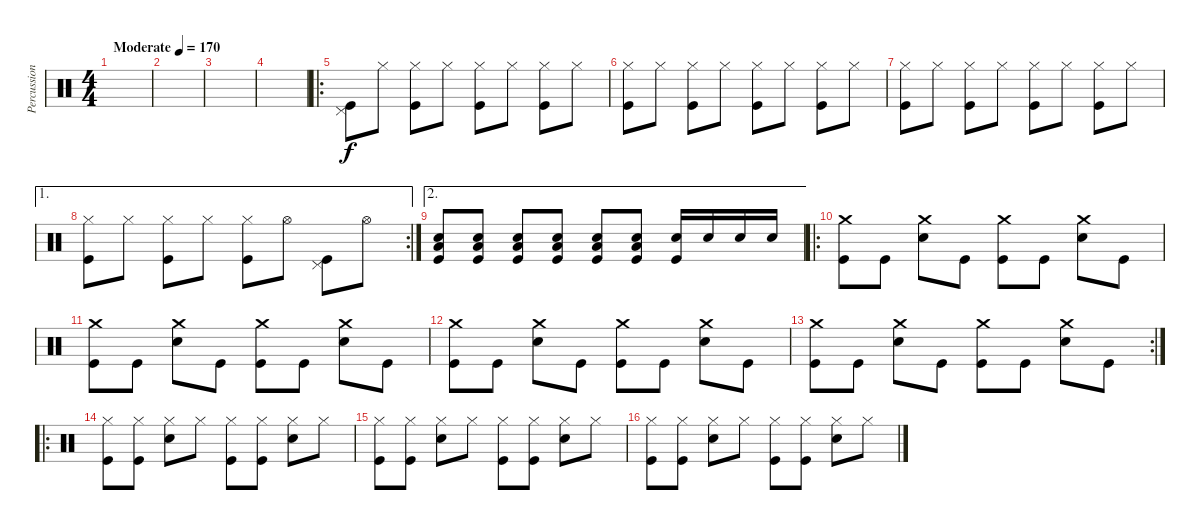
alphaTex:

\track ("Percussion" "Percussion") {instrument percussion}
\staff {score}
\articulation defaults
\ts (4 4)
\tempo (170 "Moderate")
\clef neutral
\ks c
|
|
|
|
\ro
("Pedal Hi-Hat (hit)" "Kick (hit)").8 "Hi-Hat (closed)".8 ("Hi-Hat (closed)" "Kick (hit)").8 "Hi-Hat (closed)".8 ("Hi-Hat (closed)" "Kick (hit)").8 "Hi-Hat (closed)".8 ("Hi-Hat (closed)" "Kick (hit)").8 "Hi-Hat (closed)".8 |
("Hi-Hat (closed)" "Kick (hit)").8 "Hi-Hat (closed)".8 ("Hi-Hat (closed)" "Kick (hit)").8 "Hi-Hat (closed)".8 ("Hi-Hat (closed)" "Kick (hit)").8 "Hi-Hat (closed)".8 ("Hi-Hat (closed)" "Kick (hit)").8 "Hi-Hat (closed)".8 |
("Hi-Hat (closed)" "Kick (hit)").8 "Hi-Hat (closed)".8 ("Hi-Hat (closed)" "Kick (hit)").8 "Hi-Hat (closed)".8 ("Hi-Hat (closed)" "Kick (hit)").8 "Hi-Hat (closed)".8 ("Hi-Hat (closed)" "Kick (hit)").8 "Hi-Hat (closed)".8 |
\ae 1
\rc 2
("Hi-Hat (closed)" "Kick (hit)").8 "Hi-Hat (closed)".8 ("Hi-Hat (closed)" "Kick (hit)").8 "Hi-Hat (closed)".8 ("Hi-Hat (closed)" "Kick (hit)").8 "Hi-Hat (open)".8 ("Pedal Hi-Hat (hit)" "Kick (hit)").8 "Hi-Hat (open)".8 |
\ae 2
("Snare (hit) 2" "Low Floor Tom (hit)" "Kick (hit)").8 ("Snare (hit) 2" "Low Floor Tom (hit)" "Kick (hit)").8 ("Snare (hit) 2" "Low Floor Tom (hit)" "Kick (hit)").8 ("Snare (hit) 2" "Low Floor Tom (hit)" "Kick (hit)").8 ("Snare (hit) 2" "Low Floor Tom (hit)" "Kick (hit)").8 ("Snare (hit) 2" "Low Floor Tom (hit)" "Kick (hit)").8 ("Snare (hit) 2" "Kick (hit)").16 "Snare (hit) 2".16 "Snare (hit) 2".16 "Snare (hit) 2".16 |
\ro
("Crash medium (hit)" "Kick (hit)").8 "Kick (hit)".8 ("Crash medium (hit)" "Snare (hit) 2").8 "Kick (hit)".8 ("Crash medium (hit)" "Kick (hit)").8 "Kick (hit)".8 ("Crash medium (hit)" "Snare (hit) 2").8 "Kick (hit)".8 |
("Crash medium (hit)" "Kick (hit)").8 "Kick (hit)".8 ("Crash medium (hit)" "Snare (hit) 2").8 "Kick (hit)".8 ("Crash medium (hit)" "Kick (hit)").8 "Kick (hit)".8 ("Crash medium (hit)" "Snare (hit) 2").8 "Kick (hit)".8 |
("Crash medium (hit)" "Kick (hit)").8 "Kick (hit)".8 ("Crash medium (hit)" "Snare (hit) 2").8 "Kick (hit)".8 ("Crash medium (hit)" "Kick (hit)").8 "Kick (hit)".8 ("Crash medium (hit)" "Snare (hit) 2").8 "Kick (hit)".8 |
\rc 2
("Crash medium (hit)" "Kick (hit)").8 "Kick (hit)".8 ("Crash medium (hit)" "Snare (hit) 2").8 "Kick (hit)".8 ("Crash medium (hit)" "Kick (hit)").8 "Kick (hit)".8 ("Crash medium (hit)" "Snare (hit) 2").8 "Kick (hit)".8 |
\ro
("Hi-Hat (closed)" "Kick (hit)").8 ("Hi-Hat (closed)" "Kick (hit)").8 ("Hi-Hat (closed)" "Snare (hit) 2").8 "Hi-Hat (closed)".8 ("Hi-Hat (closed)" "Kick (hit)").8 ("Hi-Hat (closed)" "Kick (hit)").8 ("Hi-Hat (closed)" "Snare (hit) 2").8 "Hi-Hat (closed)".8 |
("Hi-Hat (closed)" "Kick (hit)").8 ("Hi-Hat (closed)" "Kick (hit)").8 ("Hi-Hat (closed)" "Snare (hit) 2").8 "Hi-Hat (closed)".8 ("Hi-Hat (closed)" "Kick (hit)").8 ("Hi-Hat (closed)" "Kick (hit)").8 ("Hi-Hat (closed)" "Snare (hit) 2").8 "Hi-Hat (closed)".8 |
("Hi-Hat (closed)" "Kick (hit)").8 ("Hi-Hat (closed)" "Kick (hit)").8 ("Hi-Hat (closed)" "Snare (hit) 2").8 "Hi-Hat (closed)".8 ("Hi-Hat (closed)" "Kick (hit)").8 ("Hi-Hat (closed)" "Kick (hit)").8 ("Hi-Hat (closed)" "Snare (hit) 2").8 "Hi-Hat (closed)".8
